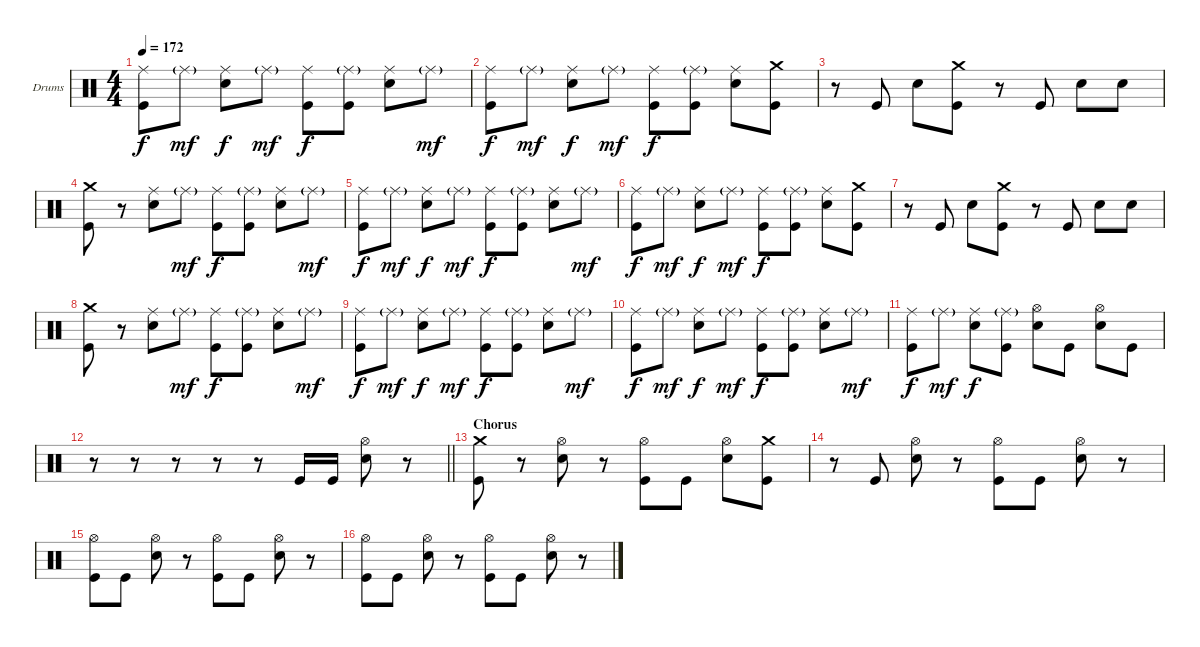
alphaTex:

\bracketExtendMode groupsimilarinstruments
\firstSystemTrackNameOrientation horizontal
\otherSystemsTrackNameOrientation horizontal
\track ("Drumkit" "Drums") {instrument percussion}
\staff {score}
\articulation defaults
\ts (4 4)
\tempo 172
\clef neutral
\ks c
("Ride (middle)" "Kick (hit)").8{dy f} "Ride (middle)"{g}.8{dy mf} ("Ride (middle)" "Snare (hit) 2").8{dy f} "Ride (middle)"{g}.8{dy mf} ("Ride (middle)" "Kick (hit)").8{dy f} ("Ride (middle)"{g} "Kick (hit)").8 ("Ride (middle)" "Snare (hit) 2").8 "Ride (middle)"{g}.8{dy mf} |
("Ride (middle)" "Kick (hit)").8{dy f} "Ride (middle)"{g}.8{dy mf} ("Ride (middle)" "Snare (hit) 2").8{dy f} "Ride (middle)"{g}.8{dy mf} ("Ride (middle)" "Kick (hit)").8{dy f} ("Ride (middle)"{g} "Kick (hit)").8 ("Ride (middle)" "Snare (hit) 2").8 ("Crash medium (hit)" "Kick (hit)").8 |
r.8 "Kick (hit)".8 "Snare (hit) 2".8 ("Crash medium (hit)" "Kick (hit)").8 r.8 "Kick (hit)".8 "Snare (hit) 2".8 "Snare (hit) 2".8 |
("Crash medium (hit)" "Kick (hit)").8 r.8 ("Ride (middle)" "Snare (hit) 2").8 "Ride (middle)"{g}.8{dy mf} ("Ride (middle)" "Kick (hit)").8{dy f} ("Ride (middle)"{g} "Kick (hit)").8 ("Ride (middle)" "Snare (hit) 2").8 "Ride (middle)"{g}.8{dy mf} |
("Ride (middle)" "Kick (hit)").8{dy f} "Ride (middle)"{g}.8{dy mf} ("Ride (middle)" "Snare (hit) 2").8{dy f} "Ride (middle)"{g}.8{dy mf} ("Ride (middle)" "Kick (hit)").8{dy f} ("Ride (middle)"{g} "Kick (hit)").8 ("Ride (middle)" "Snare (hit) 2").8 "Ride (middle)"{g}.8{dy mf} |
("Ride (middle)" "Kick (hit)").8{dy f} "Ride (middle)"{g}.8{dy mf} ("Ride (middle)" "Snare (hit) 2").8{dy f} "Ride (middle)"{g}.8{dy mf} ("Ride (middle)" "Kick (hit)").8{dy f} ("Ride (middle)"{g} "Kick (hit)").8 ("Ride (middle)" "Snare (hit) 2").8 ("Crash medium (hit)" "Kick (hit)").8 |
r.8 "Kick (hit)".8 "Snare (hit) 2".8 ("Crash medium (hit)" "Kick (hit)").8 r.8 "Kick (hit)".8 "Snare (hit) 2".8 "Snare (hit) 2".8 |
("Crash medium (hit)" "Kick (hit)").8 r.8 ("Ride (middle)" "Snare (hit) 2").8 "Ride (middle)"{g}.8{dy mf} ("Ride (middle)" "Kick (hit)").8{dy f} ("Ride (middle)"{g} "Kick (hit)").8 ("Ride (middle)" "Snare (hit) 2").8 "Ride (middle)"{g}.8{dy mf} |
("Ride (middle)" "Kick (hit)").8{dy f} "Ride (middle)"{g}.8{dy mf} ("Ride (middle)" "Snare (hit) 2").8{dy f} "Ride (middle)"{g}.8{dy mf} ("Ride (middle)" "Kick (hit)").8{dy f} ("Ride (middle)"{g} "Kick (hit)").8 ("Ride (middle)" "Snare (hit) 2").8 "Ride (middle)"{g}.8{dy mf} |
("Ride (middle)" "Kick (hit)").8{dy f} "Ride (middle)"{g}.8{dy mf} ("Ride (middle)" "Snare (hit) 2").8{dy f} "Ride (middle)"{g}.8{dy mf} ("Ride (middle)" "Kick (hit)").8{dy f} ("Ride (middle)"{g} "Kick (hit)").8 ("Ride (middle)" "Snare (hit) 2").8 "Ride (middle)"{g}.8{dy mf} |
("Ride (middle)" "Kick (hit)").8{dy f} "Ride (middle)"{g}.8{dy mf} ("Ride (middle)" "Snare (hit) 2").8{dy f} ("Ride (middle)"{g} "Kick (hit)").8 ("Hi-Hat (open)" "Snare (hit) 2").8 "Kick (hit)".8 ("Hi-Hat (open)" "Snare (hit) 2").8 "Kick (hit)".8 |
\barLineRight lightlight
r.8 r.8 r.8 r.8 r.8 "Kick (hit)".16 "Kick (hit)".16 ("Hi-Hat (open)" "Snare (hit) 2").8 r.8 |
\section ("" "Chorus")
("Crash medium (hit)" "Kick (hit)").8 r.8 ("Hi-Hat (open)" "Snare (hit) 2").8 r.8 ("Hi-Hat (open)" "Kick (hit)").8 "Kick (hit)".8 ("Hi-Hat (open)" "Snare (hit) 2").8 ("Crash medium (hit)" "Kick (hit)").8 |
r.8 "Kick (hit)".8 ("Hi-Hat (open)" "Snare (hit) 2").8 r.8 ("Hi-Hat (open)" "Kick (hit)").8 "Kick (hit)".8 ("Hi-Hat (open)" "Snare (hit) 2").8 r.8 |
("Hi-Hat (open)" "Kick (hit)").8 "Kick (hit)".8 ("Hi-Hat (open)" "Snare (hit) 2").8 r.8 ("Hi-Hat (open)" "Kick (hit)").8 "Kick (hit)".8 ("Hi-Hat (open)" "Snare (hit) 2").8 r.8 |
("Hi-Hat (open)" "Kick (hit)").8 "Kick (hit)".8 ("Hi-Hat (open)" "Snare (hit) 2").8 r.8 ("Hi-Hat (open)" "Kick (hit)").8 "Kick (hit)".8 ("Hi-Hat (open)" "Snare (hit) 2").8 r.8
